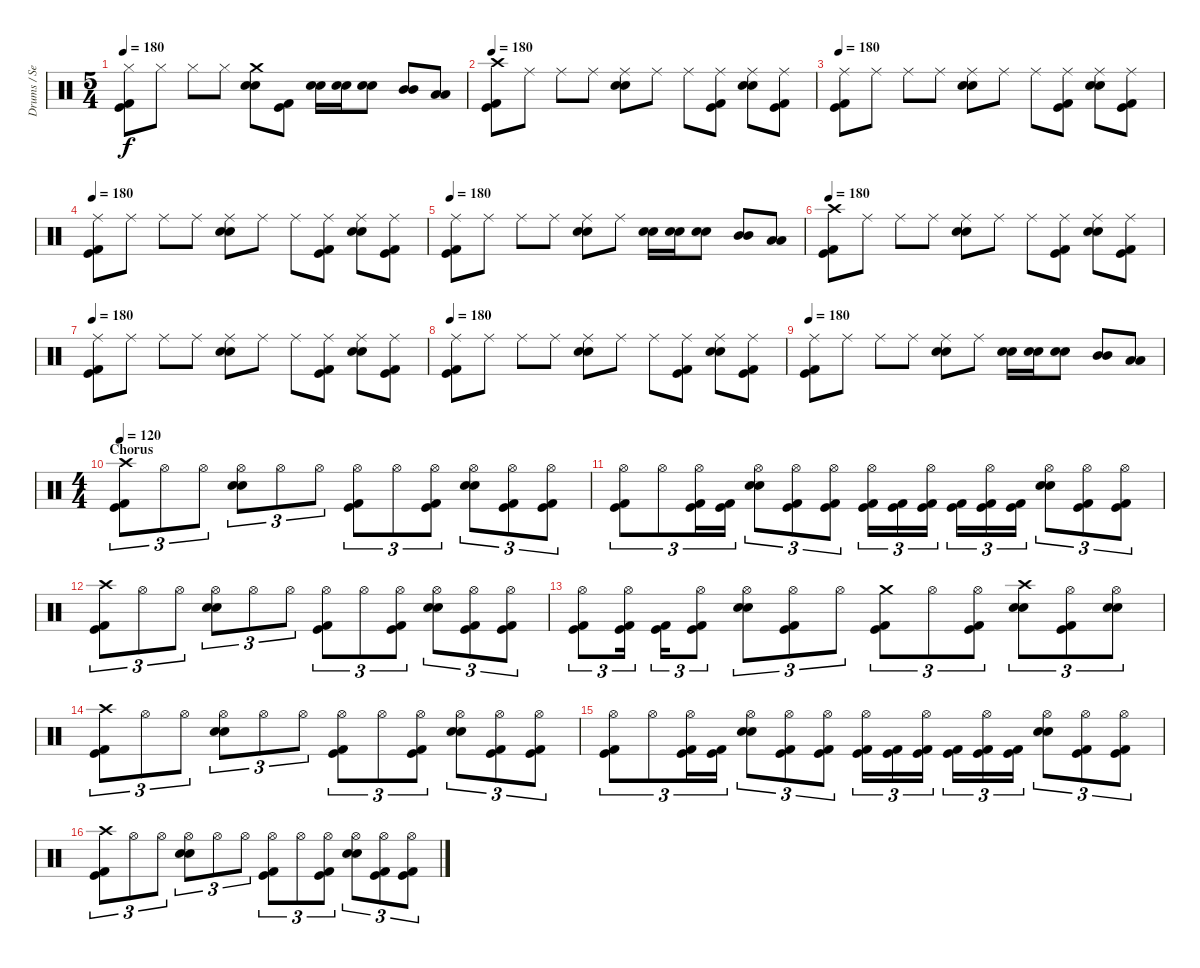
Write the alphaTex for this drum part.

\track ("Drums / Sean" "Drums / Se") {instrument percussion}
\staff {score}
\articulation defaults
\ts (5 4)
\tempo 180
\clef neutral
\ks c
("Hi-Hat (closed)" "Kick (hit)" "Kick (hit) 2").8{dy f} "Hi-Hat (closed)".8 "Hi-Hat (closed)".8 "Hi-Hat (closed)".8 ("Crash medium (hit)" "Electric Snare (hit)" "Snare (hit) 2").8 ("Kick (hit)" "Kick (hit) 2").8 ("Electric Snare (hit)" "Snare (hit) 2").16 ("Electric Snare (hit)" "Snare (hit) 2").16 ("Electric Snare (hit)" "Snare (hit) 2").8 ("Mid Tom (hit)" "Mid Tom (hit)").8 ("Low Tom (hit)" "Low Tom (hit)").8 |
\tempo 180
("Crash high (hit)" "Kick (hit)" "Kick (hit) 2").8 "Ride (middle)".8 "Ride (middle)".8 "Ride (middle)".8 ("Ride (middle)" "Electric Snare (hit)" "Snare (hit) 2").8 "Ride (middle)".8 "Ride (middle)".8 ("Ride (middle)" "Kick (hit)" "Kick (hit) 2").8 ("Ride (middle)" "Electric Snare (hit)" "Snare (hit) 2").8 ("Ride (middle)" "Kick (hit)" "Kick (hit) 2").8 |
\tempo 180
("Ride (middle)" "Kick (hit)" "Kick (hit) 2").8 "Ride (middle)".8 "Ride (middle)".8 "Ride (middle)".8 ("Ride (middle)" "Electric Snare (hit)" "Snare (hit) 2").8 "Ride (middle)".8 "Ride (middle)".8 ("Ride (middle)" "Kick (hit)" "Kick (hit) 2").8 ("Ride (middle)" "Electric Snare (hit)" "Snare (hit) 2").8 ("Ride (middle)" "Kick (hit)" "Kick (hit) 2").8 |
\tempo 180
("Ride (middle)" "Kick (hit)" "Kick (hit) 2").8 "Ride (middle)".8 "Ride (middle)".8 "Ride (middle)".8 ("Ride (middle)" "Electric Snare (hit)" "Snare (hit) 2").8 "Ride (middle)".8 "Ride (middle)".8 ("Ride (middle)" "Kick (hit)" "Kick (hit) 2").8 ("Ride (middle)" "Electric Snare (hit)" "Snare (hit) 2").8 ("Ride (middle)" "Kick (hit)" "Kick (hit) 2").8 |
\tempo 180
("Ride (middle)" "Kick (hit)" "Kick (hit) 2").8 "Ride (middle)".8 "Ride (middle)".8 "Ride (middle)".8 ("Ride (middle)" "Electric Snare (hit)" "Snare (hit) 2").8 "Ride (middle)".8 ("Electric Snare (hit)" "Snare (hit) 2").16 ("Electric Snare (hit)" "Snare (hit) 2").16 ("Electric Snare (hit)" "Snare (hit) 2").8 ("Mid Tom (hit)" "Mid Tom (hit)").8 ("Low Tom (hit)" "Low Tom (hit)").8 |
\tempo 180
("Crash high (hit)" "Kick (hit)" "Kick (hit) 2").8 "Ride (middle)".8 "Ride (middle)".8 "Ride (middle)".8 ("Ride (middle)" "Electric Snare (hit)" "Snare (hit) 2").8 "Ride (middle)".8 "Ride (middle)".8 ("Ride (middle)" "Kick (hit)" "Kick (hit) 2").8 ("Ride (middle)" "Electric Snare (hit)" "Snare (hit) 2").8 ("Ride (middle)" "Kick (hit)" "Kick (hit) 2").8 |
\tempo 180
("Ride (middle)" "Kick (hit)" "Kick (hit) 2").8 "Ride (middle)".8 "Ride (middle)".8 "Ride (middle)".8 ("Ride (middle)" "Electric Snare (hit)" "Snare (hit) 2").8 "Ride (middle)".8 "Ride (middle)".8 ("Ride (middle)" "Kick (hit)" "Kick (hit) 2").8 ("Ride (middle)" "Electric Snare (hit)" "Snare (hit) 2").8 ("Ride (middle)" "Kick (hit)" "Kick (hit) 2").8 |
\tempo 180
("Ride (middle)" "Kick (hit)" "Kick (hit) 2").8 "Ride (middle)".8 "Ride (middle)".8 "Ride (middle)".8 ("Ride (middle)" "Electric Snare (hit)" "Snare (hit) 2").8 "Ride (middle)".8 "Ride (middle)".8 ("Ride (middle)" "Kick (hit)" "Kick (hit) 2").8 ("Ride (middle)" "Electric Snare (hit)" "Snare (hit) 2").8 ("Ride (middle)" "Kick (hit)" "Kick (hit) 2").8 |
\tempo 180
("Ride (middle)" "Kick (hit)" "Kick (hit) 2").8 "Ride (middle)".8 "Ride (middle)".8 "Ride (middle)".8 ("Ride (middle)" "Electric Snare (hit)" "Snare (hit) 2").8 "Ride (middle)".8 ("Electric Snare (hit)" "Snare (hit) 2").16 ("Electric Snare (hit)" "Snare (hit) 2").16 ("Electric Snare (hit)" "Snare (hit) 2").8 ("Mid Tom (hit)" "Mid Tom (hit)").8 ("Low Tom (hit)" "Low Tom (hit)").8 |
\ts (4 4)
\section ("" "Chorus")
\tempo 120
("Crash high (hit)" "Kick (hit)" "Kick (hit) 2").8{tu (3 2)} "Hi-Hat (open)".8{tu (3 2)} "Hi-Hat (open)".8{tu (3 2)} ("Hi-Hat (open)" "Electric Snare (hit)" "Snare (hit) 2").8{tu (3 2)} "Hi-Hat (open)".8{tu (3 2)} "Hi-Hat (open)".8{tu (3 2)} ("Hi-Hat (open)" "Kick (hit)" "Kick (hit) 2").8{tu (3 2)} "Hi-Hat (open)".8{tu (3 2)} ("Hi-Hat (open)" "Kick (hit)" "Kick (hit) 2").8{tu (3 2)} ("Hi-Hat (open)" "Electric Snare (hit)" "Snare (hit) 2").8{tu (3 2)} ("Hi-Hat (open)" "Kick (hit)" "Kick (hit) 2").8{tu (3 2)} ("Hi-Hat (open)" "Kick (hit)" "Kick (hit) 2").8{tu (3 2)} |
("Hi-Hat (open)" "Kick (hit)" "Kick (hit) 2").8{tu (3 2)} "Hi-Hat (open)".8{tu (3 2)} ("Hi-Hat (open)" "Kick (hit)" "Kick (hit) 2").16{tu (3 2)} ("Kick (hit)" "Kick (hit) 2").16{tu (3 2)} ("Hi-Hat (open)" "Electric Snare (hit)" "Snare (hit) 2").8{tu (3 2)} ("Hi-Hat (open)" "Kick (hit)" "Kick (hit) 2").8{tu (3 2)} ("Hi-Hat (open)" "Kick (hit)" "Kick (hit) 2").8{tu (3 2)} ("Hi-Hat (open)" "Kick (hit)" "Kick (hit) 2").16{tu (3 2)} ("Kick (hit)" "Kick (hit) 2").16{tu (3 2)} ("Hi-Hat (open)" "Kick (hit)" "Kick (hit) 2").16{tu (3 2)} ("Kick (hit)" "Kick (hit) 2").16{tu (3 2)} ("Hi-Hat (open)" "Kick (hit)" "Kick (hit) 2").16{tu (3 2)} ("Kick (hit)" "Kick (hit) 2").16{tu (3 2)} ("Hi-Hat (open)" "Electric Snare (hit)" "Snare (hit) 2").8{tu (3 2)} ("Hi-Hat (open)" "Kick (hit)" "Kick (hit) 2").8{tu (3 2)} ("Hi-Hat (open)" "Kick (hit)" "Kick (hit) 2").8{tu (3 2)} |
("Crash high (hit)" "Kick (hit)" "Kick (hit) 2").8{tu (3 2)} "Hi-Hat (open)".8{tu (3 2)} "Hi-Hat (open)".8{tu (3 2)} ("Hi-Hat (open)" "Electric Snare (hit)" "Snare (hit) 2").8{tu (3 2)} "Hi-Hat (open)".8{tu (3 2)} "Hi-Hat (open)".8{tu (3 2)} ("Hi-Hat (open)" "Kick (hit)" "Kick (hit) 2").8{tu (3 2)} "Hi-Hat (open)".8{tu (3 2)} ("Hi-Hat (open)" "Kick (hit)" "Kick (hit) 2").8{tu (3 2)} ("Hi-Hat (open)" "Electric Snare (hit)" "Snare (hit) 2").8{tu (3 2)} ("Hi-Hat (open)" "Kick (hit)" "Kick (hit) 2").8{tu (3 2)} ("Hi-Hat (open)" "Kick (hit)" "Kick (hit) 2").8{tu (3 2)} |
("Hi-Hat (open)" "Kick (hit)" "Kick (hit) 2").8{tu (3 2)} ("Hi-Hat (open)" "Kick (hit)" "Kick (hit) 2").16{tu (3 2)} ("Kick (hit)" "Kick (hit) 2").16{tu (3 2)} ("Hi-Hat (open)" "Kick (hit)" "Kick (hit) 2").8{tu (3 2)} ("Hi-Hat (open)" "Electric Snare (hit)" "Snare (hit) 2").8{tu (3 2)} ("Hi-Hat (open)" "Kick (hit)" "Kick (hit) 2").8{tu (3 2)} "Hi-Hat (open)".8{tu (3 2)} ("Crash medium (hit)" "Kick (hit)" "Kick (hit) 2").8{tu (3 2)} "Hi-Hat (open)".8{tu (3 2)} ("Hi-Hat (open)" "Kick (hit)" "Kick (hit) 2").8{tu (3 2)} ("Crash high (hit)" "Electric Snare (hit)" "Snare (hit) 2").8{tu (3 2)} ("Hi-Hat (open)" "Kick (hit)" "Kick (hit) 2").8{tu (3 2)} ("Hi-Hat (open)" "Electric Snare (hit)" "Snare (hit) 2").8{tu (3 2)} |
("Crash high (hit)" "Kick (hit)" "Kick (hit) 2").8{tu (3 2)} "Hi-Hat (open)".8{tu (3 2)} "Hi-Hat (open)".8{tu (3 2)} ("Hi-Hat (open)" "Electric Snare (hit)" "Snare (hit) 2").8{tu (3 2)} "Hi-Hat (open)".8{tu (3 2)} "Hi-Hat (open)".8{tu (3 2)} ("Hi-Hat (open)" "Kick (hit)" "Kick (hit) 2").8{tu (3 2)} "Hi-Hat (open)".8{tu (3 2)} ("Hi-Hat (open)" "Kick (hit)" "Kick (hit) 2").8{tu (3 2)} ("Hi-Hat (open)" "Electric Snare (hit)" "Snare (hit) 2").8{tu (3 2)} ("Hi-Hat (open)" "Kick (hit)" "Kick (hit) 2").8{tu (3 2)} ("Hi-Hat (open)" "Kick (hit)" "Kick (hit) 2").8{tu (3 2)} |
("Hi-Hat (open)" "Kick (hit)" "Kick (hit) 2").8{tu (3 2)} "Hi-Hat (open)".8{tu (3 2)} ("Hi-Hat (open)" "Kick (hit)" "Kick (hit) 2").16{tu (3 2)} ("Kick (hit)" "Kick (hit) 2").16{tu (3 2)} ("Hi-Hat (open)" "Electric Snare (hit)" "Snare (hit) 2").8{tu (3 2)} ("Hi-Hat (open)" "Kick (hit)" "Kick (hit) 2").8{tu (3 2)} ("Hi-Hat (open)" "Kick (hit)" "Kick (hit) 2").8{tu (3 2)} ("Hi-Hat (open)" "Kick (hit)" "Kick (hit) 2").16{tu (3 2)} ("Kick (hit)" "Kick (hit) 2").16{tu (3 2)} ("Hi-Hat (open)" "Kick (hit)" "Kick (hit) 2").16{tu (3 2)} ("Kick (hit)" "Kick (hit) 2").16{tu (3 2)} ("Hi-Hat (open)" "Kick (hit)" "Kick (hit) 2").16{tu (3 2)} ("Kick (hit)" "Kick (hit) 2").16{tu (3 2)} ("Hi-Hat (open)" "Electric Snare (hit)" "Snare (hit) 2").8{tu (3 2)} ("Hi-Hat (open)" "Kick (hit)" "Kick (hit) 2").8{tu (3 2)} ("Hi-Hat (open)" "Kick (hit)" "Kick (hit) 2").8{tu (3 2)} |
("Crash high (hit)" "Kick (hit)" "Kick (hit) 2").8{tu (3 2)} "Hi-Hat (open)".8{tu (3 2)} "Hi-Hat (open)".8{tu (3 2)} ("Hi-Hat (open)" "Electric Snare (hit)" "Snare (hit) 2").8{tu (3 2)} "Hi-Hat (open)".8{tu (3 2)} "Hi-Hat (open)".8{tu (3 2)} ("Hi-Hat (open)" "Kick (hit)" "Kick (hit) 2").8{tu (3 2)} "Hi-Hat (open)".8{tu (3 2)} ("Hi-Hat (open)" "Kick (hit)" "Kick (hit) 2").8{tu (3 2)} ("Hi-Hat (open)" "Electric Snare (hit)" "Snare (hit) 2").8{tu (3 2)} ("Hi-Hat (open)" "Kick (hit)" "Kick (hit) 2").8{tu (3 2)} ("Hi-Hat (open)" "Kick (hit)" "Kick (hit) 2").8{tu (3 2)}
